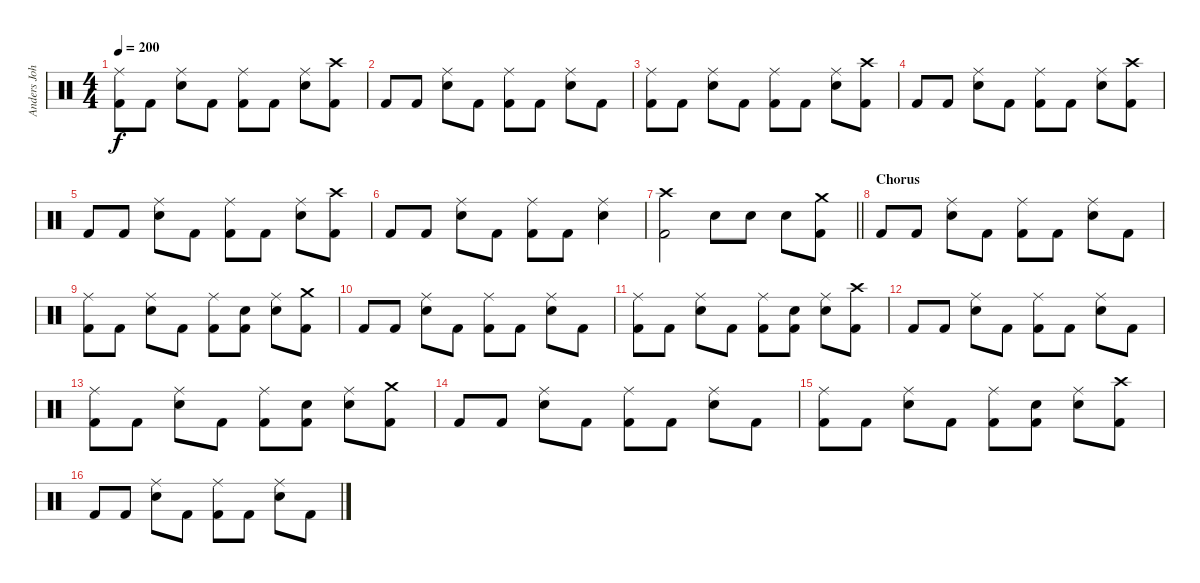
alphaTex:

\track ("Anders Johansson" "Anders Joh") {instrument percussion}
\staff {score}
\articulation defaults
\ts (4 4)
\tempo 200
\clef neutral
\ks c
("Ride (middle)" "Kick (hit) 2").8{dy f} "Kick (hit) 2".8 ("Ride (middle)" "Snare (hit) 2").8 "Kick (hit) 2".8 ("Ride (middle)" "Kick (hit) 2").8 "Kick (hit) 2".8 ("Ride (middle)" "Snare (hit) 2").8 ("Crash high (hit)" "Kick (hit) 2").8 |
"Kick (hit) 2".8 "Kick (hit) 2".8 ("Ride (middle)" "Snare (hit) 2").8 "Kick (hit) 2".8 ("Ride (middle)" "Kick (hit) 2").8 "Kick (hit) 2".8 ("Ride (middle)" "Snare (hit) 2").8 "Kick (hit) 2".8 |
("Ride (middle)" "Kick (hit) 2").8 "Kick (hit) 2".8 ("Ride (middle)" "Snare (hit) 2").8 "Kick (hit) 2".8 ("Ride (middle)" "Kick (hit) 2").8 "Kick (hit) 2".8 ("Ride (middle)" "Snare (hit) 2").8 ("Crash high (hit)" "Kick (hit) 2").8 |
"Kick (hit) 2".8 "Kick (hit) 2".8 ("Ride (middle)" "Snare (hit) 2").8 "Kick (hit) 2".8 ("Ride (middle)" "Kick (hit) 2").8 "Kick (hit) 2".8 ("Ride (middle)" "Snare (hit) 2").8 ("Crash high (hit)" "Kick (hit) 2").8 |
"Kick (hit) 2".8 "Kick (hit) 2".8 ("Ride (middle)" "Snare (hit) 2").8 "Kick (hit) 2".8 ("Ride (middle)" "Kick (hit) 2").8 "Kick (hit) 2".8 ("Ride (middle)" "Snare (hit) 2").8 ("Crash high (hit)" "Kick (hit) 2").8 |
"Kick (hit) 2".8 "Kick (hit) 2".8 ("Ride (middle)" "Snare (hit) 2").8 "Kick (hit) 2".8 ("Ride (middle)" "Kick (hit) 2").8 "Kick (hit) 2".8 ("Ride (middle)" "Snare (hit) 2").4 |
\barLineRight lightlight
("Crash high (hit)" "Kick (hit) 2").2 "Snare (hit) 2".8 "Snare (hit) 2".8 "Snare (hit) 2".8 ("Crash medium (hit)" "Kick (hit) 2").8 |
\section ("" "Chorus")
"Kick (hit) 2".8 "Kick (hit) 2".8 ("Ride (middle)" "Snare (hit) 2").8 "Kick (hit) 2".8 ("Ride (middle)" "Kick (hit) 2").8 "Kick (hit) 2".8 ("Ride (middle)" "Snare (hit) 2").8 "Kick (hit) 2".8 |
("Ride (middle)" "Kick (hit) 2").8 "Kick (hit) 2".8 ("Ride (middle)" "Snare (hit) 2").8 "Kick (hit) 2".8 ("Ride (middle)" "Kick (hit) 2").8 ("Snare (hit) 2" "Kick (hit) 2").8 ("Ride (middle)" "Snare (hit) 2").8 ("Crash medium (hit)" "Kick (hit) 2").8 |
"Kick (hit) 2".8 "Kick (hit) 2".8 ("Ride (middle)" "Snare (hit) 2").8 "Kick (hit) 2".8 ("Ride (middle)" "Kick (hit) 2").8 "Kick (hit) 2".8 ("Ride (middle)" "Snare (hit) 2").8 "Kick (hit) 2".8 |
("Ride (middle)" "Kick (hit) 2").8 "Kick (hit) 2".8 ("Ride (middle)" "Snare (hit) 2").8 "Kick (hit) 2".8 ("Ride (middle)" "Kick (hit) 2").8 ("Snare (hit) 2" "Kick (hit) 2").8 ("Ride (middle)" "Snare (hit) 2").8 ("Crash high (hit)" "Kick (hit) 2").8 |
"Kick (hit) 2".8 "Kick (hit) 2".8 ("Ride (middle)" "Snare (hit) 2").8 "Kick (hit) 2".8 ("Ride (middle)" "Kick (hit) 2").8 "Kick (hit) 2".8 ("Ride (middle)" "Snare (hit) 2").8 "Kick (hit) 2".8 |
("Ride (middle)" "Kick (hit) 2").8 "Kick (hit) 2".8 ("Ride (middle)" "Snare (hit) 2").8 "Kick (hit) 2".8 ("Ride (middle)" "Kick (hit) 2").8 ("Snare (hit) 2" "Kick (hit) 2").8 ("Ride (middle)" "Snare (hit) 2").8 ("Crash medium (hit)" "Kick (hit) 2").8 |
"Kick (hit) 2".8 "Kick (hit) 2".8 ("Ride (middle)" "Snare (hit) 2").8 "Kick (hit) 2".8 ("Ride (middle)" "Kick (hit) 2").8 "Kick (hit) 2".8 ("Ride (middle)" "Snare (hit) 2").8 "Kick (hit) 2".8 |
("Ride (middle)" "Kick (hit) 2").8 "Kick (hit) 2".8 ("Ride (middle)" "Snare (hit) 2").8 "Kick (hit) 2".8 ("Ride (middle)" "Kick (hit) 2").8 ("Snare (hit) 2" "Kick (hit) 2").8 ("Ride (middle)" "Snare (hit) 2").8 ("Crash high (hit)" "Kick (hit) 2").8 |
"Kick (hit) 2".8 "Kick (hit) 2".8 ("Ride (middle)" "Snare (hit) 2").8 "Kick (hit) 2".8 ("Ride (middle)" "Kick (hit) 2").8 "Kick (hit) 2".8 ("Ride (middle)" "Snare (hit) 2").8 "Kick (hit) 2".8
